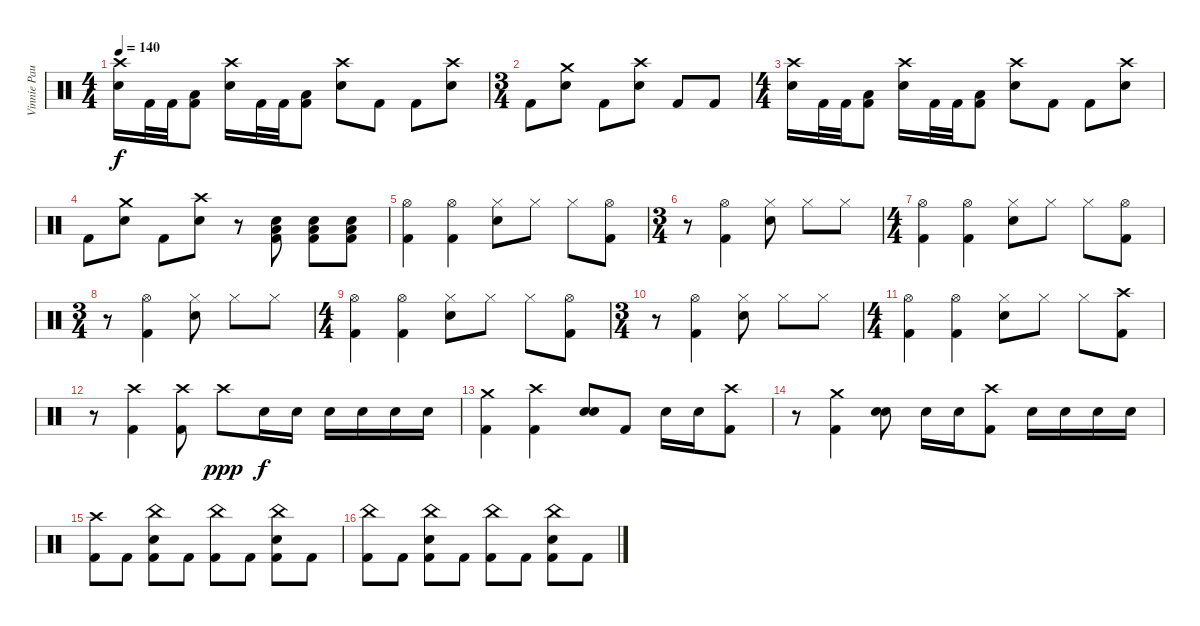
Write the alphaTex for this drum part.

\track ("Vinnie Paul" "Vinnie Pau") {instrument percussion}
\staff {score}
\articulation defaults
\ts (4 4)
\tempo 140
\clef neutral
\ks c
("Crash high (hit)" "Snare (hit) 2").16{dy f} "Kick (hit) 2".32 "Kick (hit) 2".32 ("Low Tom (hit)" "Kick (hit) 2").8 ("Crash high (hit)" "Snare (hit) 2").16 "Kick (hit) 2".32 "Kick (hit) 2".32 ("Low Tom (hit)" "Kick (hit) 2").8 ("Crash high (hit)" "Snare (hit) 2").8 "Kick (hit) 2".8 "Kick (hit) 2".8 ("Crash high (hit)" "Snare (hit) 2").8 |
\ts (3 4)
"Kick (hit) 2".8 ("Crash medium (hit)" "Snare (hit) 2").8 "Kick (hit) 2".8 ("Crash high (hit)" "Snare (hit) 2").8 "Kick (hit) 2".8 "Kick (hit) 2".8 |
\ts (4 4)
("Crash high (hit)" "Snare (hit) 2").16 "Kick (hit) 2".32 "Kick (hit) 2".32 ("Low Tom (hit)" "Kick (hit) 2").8 ("Crash high (hit)" "Snare (hit) 2").16 "Kick (hit) 2".32 "Kick (hit) 2".32 ("Low Tom (hit)" "Kick (hit) 2").8 ("Crash high (hit)" "Snare (hit) 2").8 "Kick (hit) 2".8 "Kick (hit) 2".8 ("Crash high (hit)" "Snare (hit) 2").8 |
"Kick (hit) 2".8 ("Crash medium (hit)" "Snare (hit) 2").8 "Kick (hit) 2".8 ("Crash high (hit)" "Snare (hit) 2").8 r.8 ("Low Floor Tom (hit)" "Snare (hit) 2" "Kick (hit) 2").8 ("Low Floor Tom (hit)" "Snare (hit) 2" "Kick (hit) 2").8 ("Low Floor Tom (hit)" "Snare (hit) 2" "Kick (hit) 2").8 |
("Hi-Hat (open)" "Kick (hit) 2").4 ("Hi-Hat (open)" "Kick (hit) 2").4 ("Hi-Hat (closed)" "Snare (hit) 2").8 "Hi-Hat (closed)".8 "Hi-Hat (closed)".8 ("Hi-Hat (open)" "Kick (hit) 2").8 |
\ts (3 4)
r.8 ("Hi-Hat (open)" "Kick (hit) 2").4 ("Hi-Hat (closed)" "Snare (hit) 2").8 "Hi-Hat (closed)".8 "Hi-Hat (closed)".8 |
\ts (4 4)
("Hi-Hat (open)" "Kick (hit) 2").4 ("Hi-Hat (open)" "Kick (hit) 2").4 ("Hi-Hat (closed)" "Snare (hit) 2").8 "Hi-Hat (closed)".8 "Hi-Hat (closed)".8 ("Hi-Hat (open)" "Kick (hit) 2").8 |
\ts (3 4)
r.8 ("Hi-Hat (open)" "Kick (hit) 2").4 ("Hi-Hat (closed)" "Snare (hit) 2").8 "Hi-Hat (closed)".8 "Hi-Hat (closed)".8 |
\ts (4 4)
("Hi-Hat (open)" "Kick (hit) 2").4 ("Hi-Hat (open)" "Kick (hit) 2").4 ("Hi-Hat (closed)" "Snare (hit) 2").8 "Hi-Hat (closed)".8 "Hi-Hat (closed)".8 ("Hi-Hat (open)" "Kick (hit) 2").8 |
\ts (3 4)
r.8 ("Hi-Hat (open)" "Kick (hit) 2").4 ("Hi-Hat (closed)" "Snare (hit) 2").8 "Hi-Hat (closed)".8 "Hi-Hat (closed)".8 |
\ts (4 4)
("Hi-Hat (open)" "Kick (hit) 2").4 ("Hi-Hat (open)" "Kick (hit) 2").4 ("Hi-Hat (closed)" "Snare (hit) 2").8 "Hi-Hat (closed)".8 "Hi-Hat (closed)".8 ("Crash high (hit)" "Kick (hit) 2").8 |
r.8 ("Crash high (hit)" "Kick (hit) 2").4 ("Crash high (hit)" "Kick (hit) 2").8 "Crash high (hit)".8{dy ppp} "Snare (hit) 2".16{dy f} "Snare (hit) 2".16 "Snare (hit) 2".16 "Snare (hit) 2".16 "Snare (hit) 2".16 "Snare (hit) 2".16 |
("Crash medium (hit)" "Kick (hit) 2").4 ("Crash high (hit)" "Kick (hit) 2").4 ("Snare (hit) 2" "Snare (hit) 2").8{bd 120} "Kick (hit) 2".8 "Snare (hit) 2".16 "Snare (hit) 2".16 ("Crash high (hit)" "Kick (hit) 2").8 |
r.8 ("Crash medium (hit)" "Kick (hit) 2").4 ("Snare (hit) 2" "Snare (hit) 2").8{bd 120} "Snare (hit) 2".16 "Snare (hit) 2".16 ("Crash high (hit)" "Kick (hit) 2").8 "Snare (hit) 2".16 "Snare (hit) 2".16 "Snare (hit) 2".16 "Snare (hit) 2".16 |
("Crash high (hit)" "Kick (hit) 2").8 "Kick (hit) 2".8 ("China (hit)" "Snare (hit) 2" "Kick (hit) 2").8 "Kick (hit) 2".8 ("China (hit)" "Kick (hit) 2").8 "Kick (hit) 2".8 ("China (hit)" "Snare (hit) 2" "Kick (hit) 2").8 "Kick (hit) 2".8 |
("China (hit)" "Kick (hit) 2").8 "Kick (hit) 2".8 ("China (hit)" "Snare (hit) 2" "Kick (hit) 2").8 "Kick (hit) 2".8 ("China (hit)" "Kick (hit) 2").8 "Kick (hit) 2".8 ("China (hit)" "Snare (hit) 2" "Kick (hit) 2").8 "Kick (hit) 2".8
